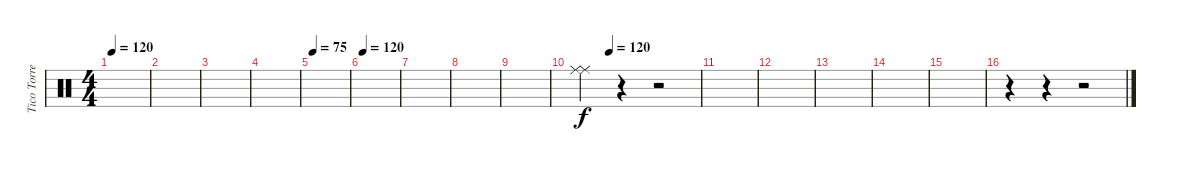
\track ("Tico Torres" "Tico Torre") {instrument percussion}
\staff {score}
\articulation defaults
\ts (4 4)
\tempo 120
\tempo 90
\tempo 120
\clef neutral
\ks c
|
|
|
|
\tempo 75
|
\tempo 120
|
|
|
|
\tempo (120 0.25)
("Ride (middle)" "Ride (middle)").4 r.4 r.2 |
|
|
|
|
|
r.4 r.4 r.2
